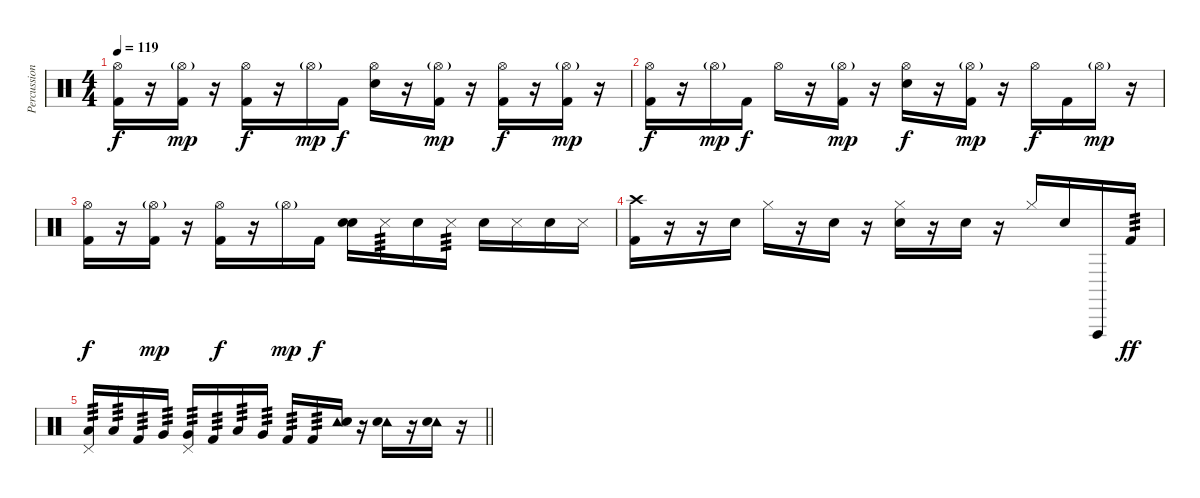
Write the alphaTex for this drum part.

\track ("Percussion" "Percussion") {instrument percussion}
\staff {score}
\articulation defaults
\ts (4 4)
\tempo 119
\clef neutral
\ks c
("Hi-Hat (open)" "Kick (hit) 2").16{dy f} r.16 ("Hi-Hat (open)"{g} "Kick (hit) 2").16{dy mp} r.16 ("Hi-Hat (open)" "Kick (hit) 2").16{dy f} r.16 "Hi-Hat (open)"{g}.16{dy mp} "Kick (hit) 2".16{dy f} ("Hi-Hat (open)" "Snare (hit) 2").16 r.16 ("Hi-Hat (open)"{g} "Kick (hit) 2").16{dy mp} r.16 ("Hi-Hat (open)" "Kick (hit) 2").16{dy f} r.16 ("Hi-Hat (open)"{g} "Kick (hit) 2").16{dy mp} r.16 |
("Hi-Hat (open)" "Kick (hit) 2").16{dy f} r.16 "Hi-Hat (open)"{g}.16{dy mp} "Kick (hit) 2".16{dy f} "Hi-Hat (open)".16 r.16 ("Hi-Hat (open)"{g} "Kick (hit) 2").16{dy mp} r.16 ("Hi-Hat (open)" "Snare (hit) 2").16{dy f} r.16 ("Hi-Hat (open)"{g} "Kick (hit) 2").16{dy mp} r.16 "Hi-Hat (open)".16{dy f} "Kick (hit) 2".16 "Hi-Hat (open)"{g}.16{dy mp} r.16 |
("Hi-Hat (open)" "Kick (hit) 2").16{dy f} r.16 ("Hi-Hat (open)"{g} "Kick (hit) 2").16{dy mp} r.16 ("Hi-Hat (open)" "Kick (hit) 2").16{dy f} r.16 "Hi-Hat (open)"{g}.16{dy mp} "Kick (hit) 2".16{dy f} ("Snare (hit)" "Snare (hit) 2").16 "Metronome (hit)".16{tp 3} "Snare (hit) 2".16 "Metronome (hit)".16{tp 3} "Snare (hit) 2".16 "Metronome (hit)".16 "Snare (hit) 2".16 "Metronome (hit)".16 |
("Crash high (hit)" "Kick (hit) 2").16 r.16 r.16 "Snare (hit) 2".16 "Hi-Hat (closed)".16 r.16 "Snare (hit) 2".16 r.16 ("Hi-Hat (closed)" "Snare (hit) 2").16 r.16 "Snare (hit) 2".16 r.16 "Hi-Hat (closed)".16 "Snare (hit) 2".16 "Vibraslap (hit)".16 "Kick (hit) 2".16{tp 3 dy ff} |
\barLineRight lightlight
("Pedal Hi-Hat (hit)" "Low Tom (hit)").16{tp 3} "Low Tom (hit)".16{tp 3} "Kick (hit) 2".16{tp 3} "Very Low Tom (hit)".16{tp 3} ("Pedal Hi-Hat (hit)" "Very Low Tom (hit)").16{tp 3} "Kick (hit) 2".16{tp 3} "Low Tom (hit)".16{tp 3} "Very Low Tom (hit)".16{tp 3} "Kick (hit) 2".16{tp 3} "Kick (hit) 2".16{tp 3} ("Tambourine (hit)" "Snare (hit) 2").16 r.16 ("Tambourine (hit)" "Snare (hit) 2").16 r.16 ("Tambourine (hit)" "Snare (hit) 2").16 r.16
